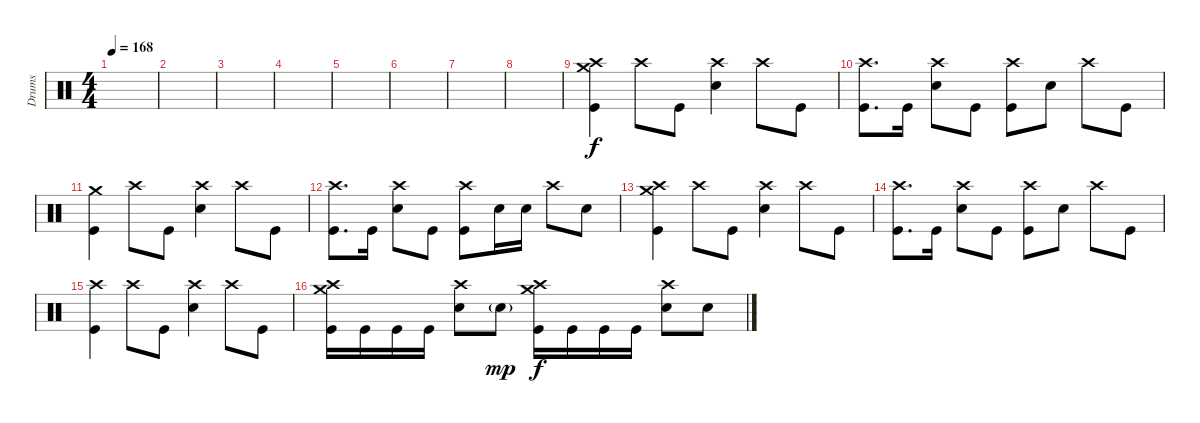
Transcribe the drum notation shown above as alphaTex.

\track ("Drums" "Drums") {instrument percussion}
\staff {score}
\articulation defaults
\ts (4 4)
\tempo 168
\clef neutral
\ks c
|
|
|
|
|
|
|
|
("Crash high (hit)" "Crash medium (hit)" "Kick (hit)").4 "Crash high (hit)".8 "Kick (hit)".8 ("Crash high (hit)" "Snare (hit) 2").4 "Crash high (hit)".8 "Kick (hit)".8 |
("Crash high (hit)" "Kick (hit)").8{d} "Kick (hit)".16 ("Crash high (hit)" "Snare (hit) 2").8 "Kick (hit)".8 ("Crash high (hit)" "Kick (hit)").8 "Snare (hit) 2".8 "Crash high (hit)".8 "Kick (hit)".8 |
("Crash medium (hit)" "Kick (hit)").4 "Crash high (hit)".8 "Kick (hit)".8 ("Crash high (hit)" "Snare (hit) 2").4 "Crash high (hit)".8 "Kick (hit)".8 |
("Crash high (hit)" "Kick (hit)").8{d} "Kick (hit)".16 ("Crash high (hit)" "Snare (hit) 2").8 "Kick (hit)".8 ("Crash high (hit)" "Kick (hit)").8 "Snare (hit) 2".16 "Snare (hit) 2".16 "Crash high (hit)".8 "Snare (hit) 2".8 |
("Crash high (hit)" "Crash medium (hit)" "Kick (hit)").4 "Crash high (hit)".8 "Kick (hit)".8 ("Crash high (hit)" "Snare (hit) 2").4 "Crash high (hit)".8 "Kick (hit)".8 |
("Crash high (hit)" "Kick (hit)").8{d} "Kick (hit)".16 ("Crash high (hit)" "Snare (hit) 2").8 "Kick (hit)".8 ("Crash high (hit)" "Kick (hit)").8 "Snare (hit) 2".8 "Crash high (hit)".8 "Kick (hit)".8 |
("Crash high (hit)" "Kick (hit)").4 "Crash high (hit)".8 "Kick (hit)".8 ("Crash high (hit)" "Snare (hit) 2").4 "Crash high (hit)".8 "Kick (hit)".8 |
("Crash high (hit)" "Crash medium (hit)" "Kick (hit)").16 "Kick (hit)".16 "Kick (hit)".16 "Kick (hit)".16 ("Crash high (hit)" "Snare (hit) 2").8 "Snare (hit) 2"{g}.8{dy mp} ("Crash high (hit)" "Crash medium (hit)" "Kick (hit)").16{dy f} "Kick (hit)".16 "Kick (hit)".16 "Kick (hit)".16 ("Crash high (hit)" "Snare (hit) 2").8 "Snare (hit) 2".8
